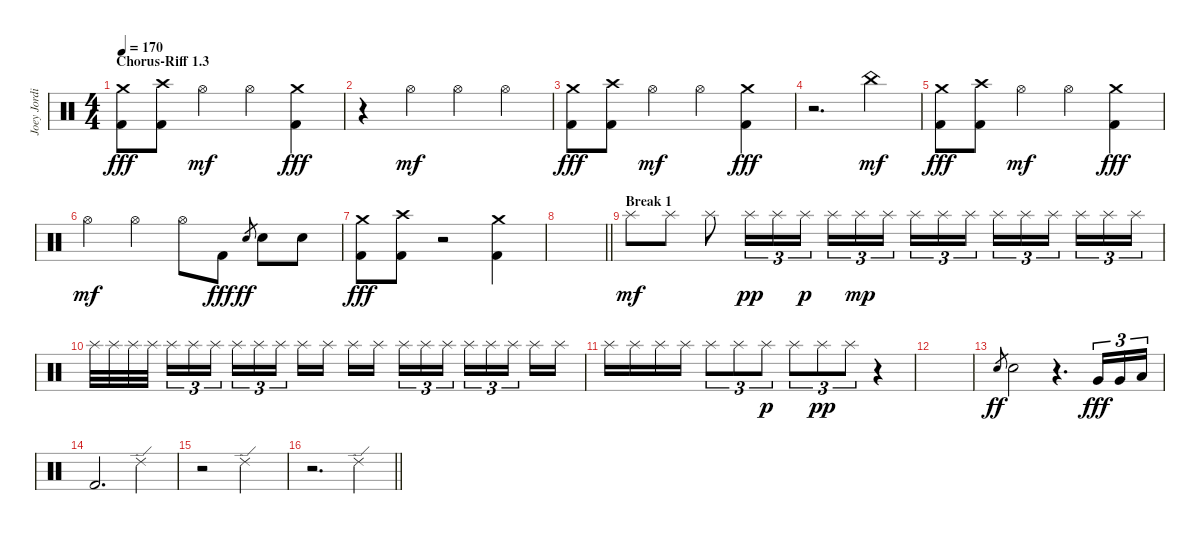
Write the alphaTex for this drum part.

\track ("Joey Jordison" "Joey Jordi") {instrument percussion}
\staff {score}
\articulation defaults
\ts (4 4)
\section ("" "Chorus-Riff 1.3")
\tempo 170
\clef neutral
\ks c
("Crash medium (hit)" "Kick (hit) 2").8{dy fff} ("Crash high (hit)" "Kick (hit) 2").8 "Hi-Hat (open)".4{dy mf} "Hi-Hat (open)".4 ("Crash medium (hit)" "Kick (hit) 2").4{dy fff} |
r.4 "Hi-Hat (open)".4{dy mf} "Hi-Hat (open)".4 "Hi-Hat (open)".4 |
("Crash medium (hit)" "Kick (hit) 2").8{dy fff} ("Crash high (hit)" "Kick (hit) 2").8 "Hi-Hat (open)".4{dy mf} "Hi-Hat (open)".4 ("Crash medium (hit)" "Kick (hit) 2").4{dy fff} |
r.2{d} "China (hit)".4{dy mf} |
("Crash medium (hit)" "Kick (hit) 2").8{dy fff} ("Crash high (hit)" "Kick (hit) 2").8 "Hi-Hat (open)".4{dy mf} "Hi-Hat (open)".4 ("Crash medium (hit)" "Kick (hit) 2").4{dy fff} |
"Hi-Hat (open)".4{dy mf} "Hi-Hat (open)".4 "Hi-Hat (open)".8 "Kick (hit) 2".8{dy fff} "Electric Snare (hit)".8{gr dy ff} "Electric Snare (hit)".8 "Electric Snare (hit)".8 |
("Crash medium (hit)" "Kick (hit) 2").8{dy fff} ("Crash high (hit)" "Kick (hit) 2").8 r.2 ("Crash medium (hit)" "Kick (hit) 2").4 |
\barLineRight lightlight
|
\section ("" "Break 1")
"Splash (hit)".8{dy mf} "Splash (hit)".8 "Splash (hit)".8 "Splash (hit)".16{tu (3 2) dy pp} "Splash (hit)".16{tu (3 2)} "Splash (hit)".16{tu (3 2) dy p} "Splash (hit)".16{tu (3 2)} "Splash (hit)".16{tu (3 2) dy mp} "Splash (hit)".16{tu (3 2) beam splitsecondary} "Splash (hit)".16{tu (3 2)} "Splash (hit)".16{tu (3 2)} "Splash (hit)".16{tu (3 2)} "Splash (hit)".16{tu (3 2)} "Splash (hit)".16{tu (3 2)} "Splash (hit)".16{tu (3 2) beam splitsecondary} "Splash (hit)".16{tu (3 2)} "Splash (hit)".16{tu (3 2)} "Splash (hit)".16{tu (3 2)} |
"Splash (hit)".32 "Splash (hit)".32 "Splash (hit)".32 "Splash (hit)".32{beam splitsecondary} "Splash (hit)".16{tu (3 2)} "Splash (hit)".16{tu (3 2)} "Splash (hit)".16{tu (3 2)} "Splash (hit)".16{tu (3 2)} "Splash (hit)".16{tu (3 2)} "Splash (hit)".16{tu (3 2) beam splitsecondary} "Splash (hit)".16 "Splash (hit)".16 "Splash (hit)".16 "Splash (hit)".16{beam splitsecondary} "Splash (hit)".16{tu (3 2)} "Splash (hit)".16{tu (3 2)} "Splash (hit)".16{tu (3 2)} "Splash (hit)".16{tu (3 2)} "Splash (hit)".16{tu (3 2)} "Splash (hit)".16{tu (3 2) beam splitsecondary} "Splash (hit)".16 "Splash (hit)".16 |
"Splash (hit)".16 "Splash (hit)".16 "Splash (hit)".16 "Splash (hit)".16 "Splash (hit)".8{tu (3 2)} "Splash (hit)".8{tu (3 2)} "Splash (hit)".8{tu (3 2) dy p} "Splash (hit)".8{tu (3 2)} "Splash (hit)".8{tu (3 2) dy pp} "Splash (hit)".8{tu (3 2)} r.4 |
|
"Electric Snare (hit)".8{gr dy ff} "Electric Snare (hit)".2 r.4{d} "Very Low Tom (hit)".16{tu (3 2) dy fff} "Very Low Tom (hit)".16{tu (3 2)} "Low Floor Tom (hit)".16{tu (3 2)} |
"Kick (hit) 2".2{d} "Ride (edge) 2".4 |
r.2 "Ride (edge) 2".2 |
\barLineRight lightlight
r.2{d} "Ride (edge) 2".4
